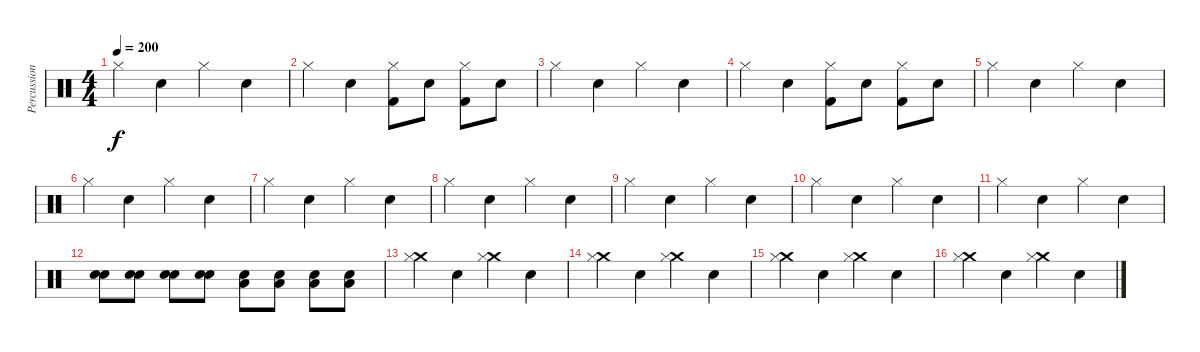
\track ("Percussion" "Percussion") {instrument percussion}
\staff {score}
\articulation defaults
\ts (4 4)
\tempo 200
\clef neutral
\ks c "Hi-Hat (closed)".4{dy f} "Snare (hit) 2".4 "Hi-Hat (closed)".4 "Snare (hit) 2".4
|
"Hi-Hat (closed)".4 "Snare (hit) 2".4 ("Kick (hit) 2" "Hi-Hat (closed)").8 "Snare (hit) 2".8 ("Kick (hit) 2" "Hi-Hat (closed)").8 "Snare (hit) 2".8 |
"Hi-Hat (closed)".4 "Snare (hit) 2".4 "Hi-Hat (closed)".4 "Snare (hit) 2".4 |
"Hi-Hat (closed)".4 "Snare (hit) 2".4 ("Kick (hit) 2" "Hi-Hat (closed)").8 "Snare (hit) 2".8 ("Kick (hit) 2" "Hi-Hat (closed)").8 "Snare (hit) 2".8 |
"Hi-Hat (closed)".4 "Snare (hit) 2".4 "Hi-Hat (closed)".4 "Snare (hit) 2".4 |
"Hi-Hat (closed)".4 "Snare (hit) 2".4 "Hi-Hat (closed)".4 "Snare (hit) 2".4 |
"Hi-Hat (closed)".4 "Snare (hit) 2".4 "Hi-Hat (closed)".4 "Snare (hit) 2".4 |
"Hi-Hat (closed)".4 "Snare (hit) 2".4 "Hi-Hat (closed)".4 "Snare (hit) 2".4 |
"Hi-Hat (closed)".4 "Snare (hit) 2".4 "Hi-Hat (closed)".4 "Snare (hit) 2".4 |
"Hi-Hat (closed)".4 "Snare (hit) 2".4 "Hi-Hat (closed)".4 "Snare (hit) 2".4 |
"Hi-Hat (closed)".4 "Snare (hit) 2".4 "Hi-Hat (closed)".4 "Snare (hit) 2".4 |
("Snare (hit) 2" "Snare (hit) 2").8 ("Snare (hit) 2" "Snare (hit) 2").8 ("Snare (hit) 2" "Snare (hit) 2").8 ("Snare (hit) 2" "Snare (hit) 2").8 ("Low Floor Tom (hit)" "Snare (hit) 2").8 ("Low Floor Tom (hit)" "Snare (hit) 2").8 ("Low Floor Tom (hit)" "Snare (hit) 2").8 ("Low Floor Tom (hit)" "Snare (hit) 2").8 |
("Crash medium (hit)" "Hi-Hat (closed)").4 "Snare (hit) 2".4 ("Crash medium (hit)" "Hi-Hat (closed)").4 "Snare (hit) 2".4 |
("Crash medium (hit)" "Hi-Hat (closed)").4 "Snare (hit) 2".4 ("Crash medium (hit)" "Hi-Hat (closed)").4 "Snare (hit) 2".4 |
("Crash medium (hit)" "Hi-Hat (closed)").4 "Snare (hit) 2".4 ("Crash medium (hit)" "Hi-Hat (closed)").4 "Snare (hit) 2".4 |
("Crash medium (hit)" "Hi-Hat (closed)").4 "Snare (hit) 2".4 ("Crash medium (hit)" "Hi-Hat (closed)").4 "Snare (hit) 2".4
